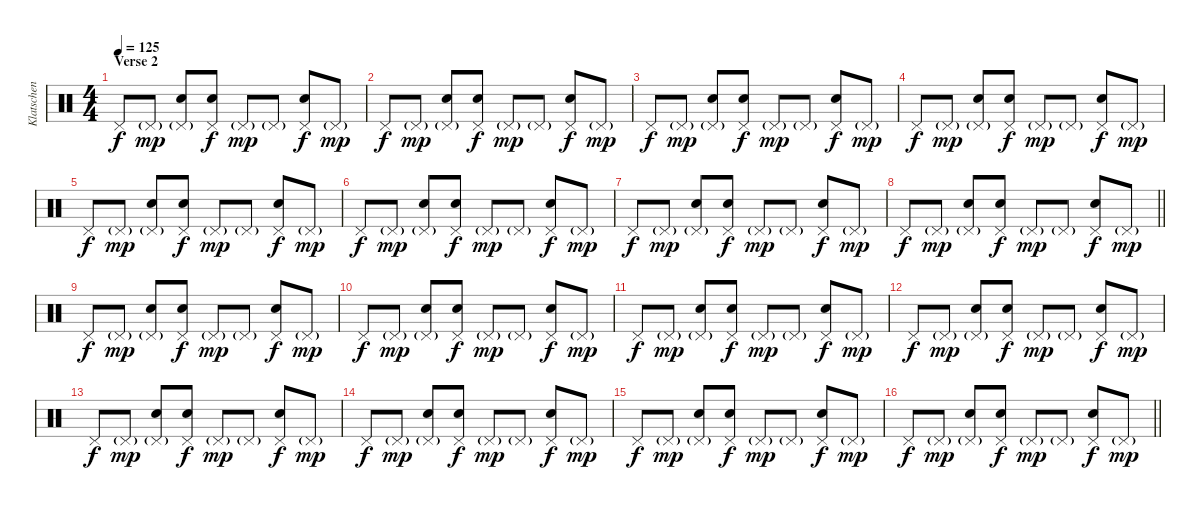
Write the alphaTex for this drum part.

\track ("Klatschen" "Klatschen") {instrument percussion}
\staff {score}
\articulation defaults
\ts (4 4)
\section ("" "Verse 2")
\tempo 125
\clef neutral
\ks c "Pedal Hi-Hat (hit)".8{dy f} "Pedal Hi-Hat (hit)"{g}.8{dy mp}
("Pedal Hi-Hat (hit)"{g} "Hand Clap (hit)").8 ("Pedal Hi-Hat (hit)" "Hand Clap (hit)").8{dy f} "Pedal Hi-Hat (hit)"{g}.8{dy mp} "Pedal Hi-Hat (hit)"{g}.8 ("Pedal Hi-Hat (hit)" "Hand Clap (hit)").8{dy f} "Pedal Hi-Hat (hit)"{g}.8{dy mp} |
"Pedal Hi-Hat (hit)".8{dy f} "Pedal Hi-Hat (hit)"{g}.8{dy mp} ("Pedal Hi-Hat (hit)"{g} "Hand Clap (hit)").8 ("Pedal Hi-Hat (hit)" "Hand Clap (hit)").8{dy f} "Pedal Hi-Hat (hit)"{g}.8{dy mp} "Pedal Hi-Hat (hit)"{g}.8 ("Pedal Hi-Hat (hit)" "Hand Clap (hit)").8{dy f} "Pedal Hi-Hat (hit)"{g}.8{dy mp} |
"Pedal Hi-Hat (hit)".8{dy f} "Pedal Hi-Hat (hit)"{g}.8{dy mp} ("Pedal Hi-Hat (hit)"{g} "Hand Clap (hit)").8 ("Pedal Hi-Hat (hit)" "Hand Clap (hit)").8{dy f} "Pedal Hi-Hat (hit)"{g}.8{dy mp} "Pedal Hi-Hat (hit)"{g}.8 ("Pedal Hi-Hat (hit)" "Hand Clap (hit)").8{dy f} "Pedal Hi-Hat (hit)"{g}.8{dy mp} |
"Pedal Hi-Hat (hit)".8{dy f} "Pedal Hi-Hat (hit)"{g}.8{dy mp} ("Pedal Hi-Hat (hit)"{g} "Hand Clap (hit)").8 ("Pedal Hi-Hat (hit)" "Hand Clap (hit)").8{dy f} "Pedal Hi-Hat (hit)"{g}.8{dy mp} "Pedal Hi-Hat (hit)"{g}.8 ("Pedal Hi-Hat (hit)" "Hand Clap (hit)").8{dy f} "Pedal Hi-Hat (hit)"{g}.8{dy mp} |
"Pedal Hi-Hat (hit)".8{dy f} "Pedal Hi-Hat (hit)"{g}.8{dy mp} ("Pedal Hi-Hat (hit)"{g} "Hand Clap (hit)").8 ("Pedal Hi-Hat (hit)" "Hand Clap (hit)").8{dy f} "Pedal Hi-Hat (hit)"{g}.8{dy mp} "Pedal Hi-Hat (hit)"{g}.8 ("Pedal Hi-Hat (hit)" "Hand Clap (hit)").8{dy f} "Pedal Hi-Hat (hit)"{g}.8{dy mp} |
"Pedal Hi-Hat (hit)".8{dy f} "Pedal Hi-Hat (hit)"{g}.8{dy mp} ("Pedal Hi-Hat (hit)"{g} "Hand Clap (hit)").8 ("Pedal Hi-Hat (hit)" "Hand Clap (hit)").8{dy f} "Pedal Hi-Hat (hit)"{g}.8{dy mp} "Pedal Hi-Hat (hit)"{g}.8 ("Pedal Hi-Hat (hit)" "Hand Clap (hit)").8{dy f} "Pedal Hi-Hat (hit)"{g}.8{dy mp} |
"Pedal Hi-Hat (hit)".8{dy f} "Pedal Hi-Hat (hit)"{g}.8{dy mp} ("Pedal Hi-Hat (hit)"{g} "Hand Clap (hit)").8 ("Pedal Hi-Hat (hit)" "Hand Clap (hit)").8{dy f} "Pedal Hi-Hat (hit)"{g}.8{dy mp} "Pedal Hi-Hat (hit)"{g}.8 ("Pedal Hi-Hat (hit)" "Hand Clap (hit)").8{dy f} "Pedal Hi-Hat (hit)"{g}.8{dy mp} |
\barLineRight lightlight "Pedal Hi-Hat (hit)".8{dy f} "Pedal Hi-Hat (hit)"{g}.8{dy mp}
("Pedal Hi-Hat (hit)"{g} "Hand Clap (hit)").8 ("Pedal Hi-Hat (hit)" "Hand Clap (hit)").8{dy f} "Pedal Hi-Hat (hit)"{g}.8{dy mp} "Pedal Hi-Hat (hit)"{g}.8 ("Pedal Hi-Hat (hit)" "Hand Clap (hit)").8{dy f} "Pedal Hi-Hat (hit)"{g}.8{dy mp} |
"Pedal Hi-Hat (hit)".8{dy f} "Pedal Hi-Hat (hit)"{g}.8{dy mp} ("Pedal Hi-Hat (hit)"{g} "Hand Clap (hit)").8 ("Pedal Hi-Hat (hit)" "Hand Clap (hit)").8{dy f} "Pedal Hi-Hat (hit)"{g}.8{dy mp} "Pedal Hi-Hat (hit)"{g}.8 ("Pedal Hi-Hat (hit)" "Hand Clap (hit)").8{dy f} "Pedal Hi-Hat (hit)"{g}.8{dy mp} |
"Pedal Hi-Hat (hit)".8{dy f} "Pedal Hi-Hat (hit)"{g}.8{dy mp} ("Pedal Hi-Hat (hit)"{g} "Hand Clap (hit)").8 ("Pedal Hi-Hat (hit)" "Hand Clap (hit)").8{dy f} "Pedal Hi-Hat (hit)"{g}.8{dy mp} "Pedal Hi-Hat (hit)"{g}.8 ("Pedal Hi-Hat (hit)" "Hand Clap (hit)").8{dy f} "Pedal Hi-Hat (hit)"{g}.8{dy mp} |
"Pedal Hi-Hat (hit)".8{dy f} "Pedal Hi-Hat (hit)"{g}.8{dy mp} ("Pedal Hi-Hat (hit)"{g} "Hand Clap (hit)").8 ("Pedal Hi-Hat (hit)" "Hand Clap (hit)").8{dy f} "Pedal Hi-Hat (hit)"{g}.8{dy mp} "Pedal Hi-Hat (hit)"{g}.8 ("Pedal Hi-Hat (hit)" "Hand Clap (hit)").8{dy f} "Pedal Hi-Hat (hit)"{g}.8{dy mp} |
"Pedal Hi-Hat (hit)".8{dy f} "Pedal Hi-Hat (hit)"{g}.8{dy mp} ("Pedal Hi-Hat (hit)"{g} "Hand Clap (hit)").8 ("Pedal Hi-Hat (hit)" "Hand Clap (hit)").8{dy f} "Pedal Hi-Hat (hit)"{g}.8{dy mp} "Pedal Hi-Hat (hit)"{g}.8 ("Pedal Hi-Hat (hit)" "Hand Clap (hit)").8{dy f} "Pedal Hi-Hat (hit)"{g}.8{dy mp} |
"Pedal Hi-Hat (hit)".8{dy f} "Pedal Hi-Hat (hit)"{g}.8{dy mp} ("Pedal Hi-Hat (hit)"{g} "Hand Clap (hit)").8 ("Pedal Hi-Hat (hit)" "Hand Clap (hit)").8{dy f} "Pedal Hi-Hat (hit)"{g}.8{dy mp} "Pedal Hi-Hat (hit)"{g}.8 ("Pedal Hi-Hat (hit)" "Hand Clap (hit)").8{dy f} "Pedal Hi-Hat (hit)"{g}.8{dy mp} |
"Pedal Hi-Hat (hit)".8{dy f} "Pedal Hi-Hat (hit)"{g}.8{dy mp} ("Pedal Hi-Hat (hit)"{g} "Hand Clap (hit)").8 ("Pedal Hi-Hat (hit)" "Hand Clap (hit)").8{dy f} "Pedal Hi-Hat (hit)"{g}.8{dy mp} "Pedal Hi-Hat (hit)"{g}.8 ("Pedal Hi-Hat (hit)" "Hand Clap (hit)").8{dy f} "Pedal Hi-Hat (hit)"{g}.8{dy mp} |
"Pedal Hi-Hat (hit)".8{dy f} "Pedal Hi-Hat (hit)"{g}.8{dy mp} ("Pedal Hi-Hat (hit)"{g} "Hand Clap (hit)").8 ("Pedal Hi-Hat (hit)" "Hand Clap (hit)").8{dy f} "Pedal Hi-Hat (hit)"{g}.8{dy mp} "Pedal Hi-Hat (hit)"{g}.8 ("Pedal Hi-Hat (hit)" "Hand Clap (hit)").8{dy f} "Pedal Hi-Hat (hit)"{g}.8{dy mp} |
\barLineRight lightlight "Pedal Hi-Hat (hit)".8{dy f} "Pedal Hi-Hat (hit)"{g}.8{dy mp}
("Pedal Hi-Hat (hit)"{g} "Hand Clap (hit)").8 ("Pedal Hi-Hat (hit)" "Hand Clap (hit)").8{dy f} "Pedal Hi-Hat (hit)"{g}.8{dy mp} "Pedal Hi-Hat (hit)"{g}.8 ("Pedal Hi-Hat (hit)" "Hand Clap (hit)").8{dy f} "Pedal Hi-Hat (hit)"{g}.8{dy mp}
